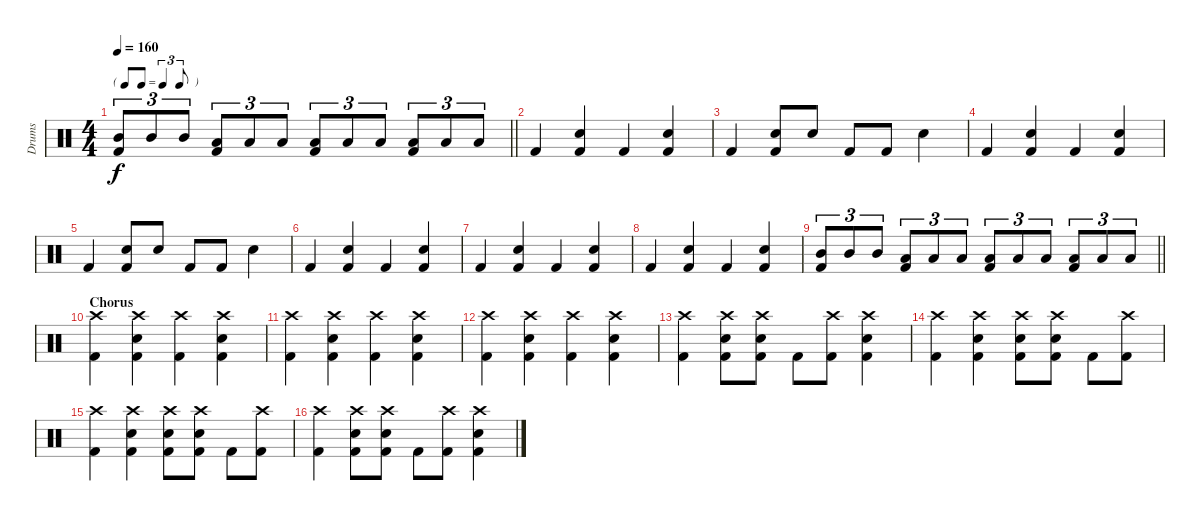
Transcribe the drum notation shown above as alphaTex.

\track ("Drums" "Drums") {instrument percussion}
\staff {score}
\articulation defaults
\ts (4 4)
\tf triplet8th
\tempo 160
\clef neutral
\barLineRight lightlight
\ks c
("Mid Tom (hit)" "Kick (hit) 2").8{tu (3 2) dy f} "Mid Tom (hit)".8{tu (3 2)} "Mid Tom (hit)".8{tu (3 2)} ("Low Tom (hit)" "Kick (hit) 2").8{tu (3 2)} "Low Tom (hit)".8{tu (3 2)} "Low Tom (hit)".8{tu (3 2)} ("Low Floor Tom (hit)" "Kick (hit) 2").8{tu (3 2)} "Low Floor Tom (hit)".8{tu (3 2)} "Low Floor Tom (hit)".8{tu (3 2)} ("Low Tom (hit)" "Kick (hit) 2").8{tu (3 2)} "Low Tom (hit)".8{tu (3 2)} "Low Tom (hit)".8{tu (3 2)} |
"Kick (hit) 2".4 ("Snare (hit) 2" "Kick (hit) 2").4 "Kick (hit) 2".4 ("Snare (hit) 2" "Kick (hit) 2").4 |
"Kick (hit) 2".4 ("Snare (hit) 2" "Kick (hit) 2").8 "Snare (hit) 2".8 "Kick (hit) 2".8 "Kick (hit) 2".8 "Snare (hit) 2".4 |
"Kick (hit) 2".4 ("Snare (hit) 2" "Kick (hit) 2").4 "Kick (hit) 2".4 ("Snare (hit) 2" "Kick (hit) 2").4 |
"Kick (hit) 2".4 ("Snare (hit) 2" "Kick (hit) 2").8 "Snare (hit) 2".8 "Kick (hit) 2".8 "Kick (hit) 2".8 "Snare (hit) 2".4 |
"Kick (hit) 2".4 ("Snare (hit) 2" "Kick (hit) 2").4 "Kick (hit) 2".4 ("Snare (hit) 2" "Kick (hit) 2").4 |
"Kick (hit) 2".4 ("Snare (hit) 2" "Kick (hit) 2").4 "Kick (hit) 2".4 ("Snare (hit) 2" "Kick (hit) 2").4 |
"Kick (hit) 2".4 ("Snare (hit) 2" "Kick (hit) 2").4 "Kick (hit) 2".4 ("Snare (hit) 2" "Kick (hit) 2").4 |
\barLineRight lightlight
("Mid Tom (hit)" "Kick (hit) 2").8{tu (3 2)} "Mid Tom (hit)".8{tu (3 2)} "Mid Tom (hit)".8{tu (3 2)} ("Low Tom (hit)" "Kick (hit) 2").8{tu (3 2)} "Low Tom (hit)".8{tu (3 2)} "Low Tom (hit)".8{tu (3 2)} ("Low Floor Tom (hit)" "Kick (hit) 2").8{tu (3 2)} "Low Floor Tom (hit)".8{tu (3 2)} "Low Floor Tom (hit)".8{tu (3 2)} ("Low Tom (hit)" "Kick (hit) 2").8{tu (3 2)} "Low Tom (hit)".8{tu (3 2)} "Low Tom (hit)".8{tu (3 2)} |
\section ("" "Chorus")
("Crash high (hit)" "Kick (hit) 2").4 ("Crash high (hit)" "Snare (hit) 2" "Kick (hit) 2").4 ("Crash high (hit)" "Kick (hit) 2").4 ("Crash high (hit)" "Snare (hit) 2" "Kick (hit) 2").4 |
("Crash high (hit)" "Kick (hit) 2").4 ("Crash high (hit)" "Snare (hit) 2" "Kick (hit) 2").4 ("Crash high (hit)" "Kick (hit) 2").4 ("Crash high (hit)" "Snare (hit) 2" "Kick (hit) 2").4 |
("Crash high (hit)" "Kick (hit) 2").4 ("Crash high (hit)" "Snare (hit) 2" "Kick (hit) 2").4 ("Crash high (hit)" "Kick (hit) 2").4 ("Crash high (hit)" "Snare (hit) 2" "Kick (hit) 2").4 |
("Crash high (hit)" "Kick (hit) 2").4 ("Crash high (hit)" "Snare (hit) 2" "Kick (hit) 2").8 ("Crash high (hit)" "Snare (hit) 2" "Kick (hit) 2").8 "Kick (hit) 2".8 ("Crash high (hit)" "Kick (hit) 2").8 ("Crash high (hit)" "Snare (hit) 2" "Kick (hit) 2").4 |
("Crash high (hit)" "Kick (hit) 2").4 ("Crash high (hit)" "Snare (hit) 2" "Kick (hit) 2").4 ("Crash high (hit)" "Snare (hit) 2" "Kick (hit) 2").8 ("Crash high (hit)" "Snare (hit) 2" "Kick (hit) 2").8 "Kick (hit) 2".8 ("Crash high (hit)" "Kick (hit) 2").8 |
("Crash high (hit)" "Kick (hit) 2").4 ("Crash high (hit)" "Snare (hit) 2" "Kick (hit) 2").4 ("Crash high (hit)" "Snare (hit) 2" "Kick (hit) 2").8 ("Crash high (hit)" "Snare (hit) 2" "Kick (hit) 2").8 "Kick (hit) 2".8 ("Crash high (hit)" "Kick (hit) 2").8 |
("Crash high (hit)" "Kick (hit) 2").4 ("Crash high (hit)" "Snare (hit) 2" "Kick (hit) 2").8 ("Crash high (hit)" "Snare (hit) 2" "Kick (hit) 2").8 "Kick (hit) 2".8 ("Crash high (hit)" "Kick (hit) 2").8 ("Crash high (hit)" "Snare (hit) 2" "Kick (hit) 2").4
